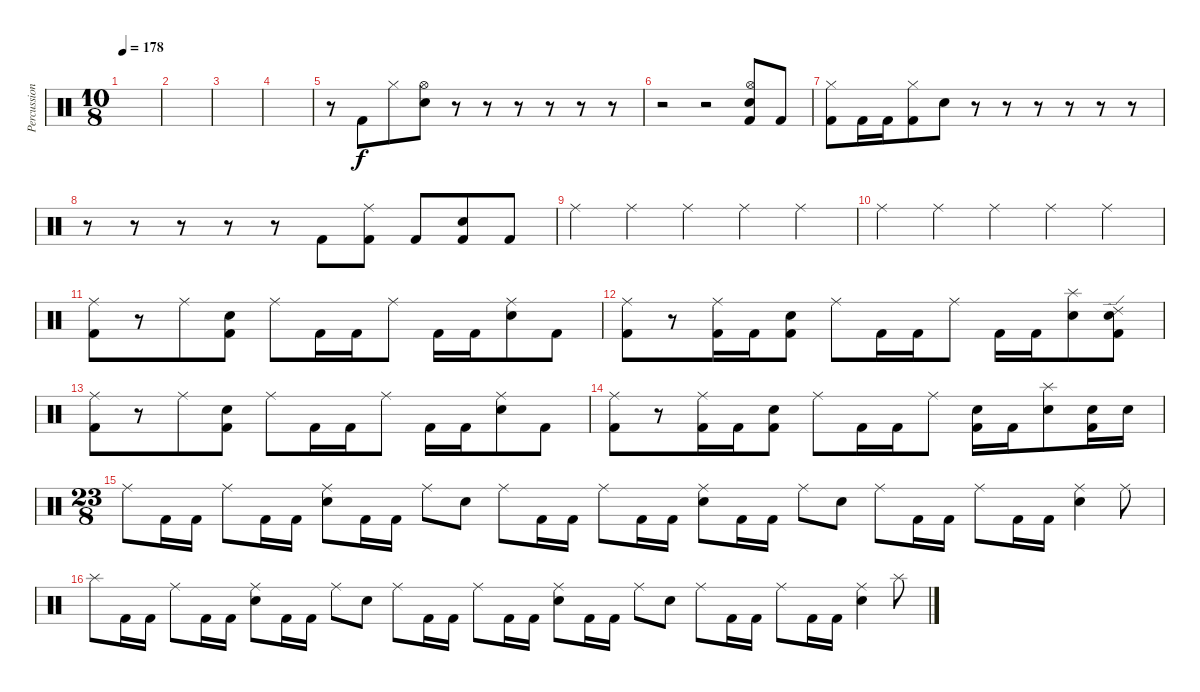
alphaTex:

\track ("Percussion" "Percussion") {instrument percussion}
\staff {score}
\articulation defaults
\ts (10 8)
\tempo 178
\clef neutral
\ks c
|
|
|
|
r.8 "Kick (hit) 2".8 "Hi-Hat (closed)".8 ("Hi-Hat (open)" "Electric Snare (hit)").8 r.8 r.8 r.8 r.8 r.8 r.8 |
r.2 r.2 ("Hi-Hat (open)" "Electric Snare (hit)" "Kick (hit) 2").8 "Kick (hit) 2".8 |
("Hi-Hat (closed)" "Kick (hit) 2").8 "Kick (hit) 2".16 "Kick (hit) 2".16 ("Hi-Hat (closed)" "Kick (hit) 2").8 "Electric Snare (hit)".8 r.8 r.8 r.8 r.8 r.8 r.8 |
r.8 r.8 r.8 r.8 r.8 "Kick (hit) 2".8 ("Ride (middle)" "Kick (hit) 2").8 "Kick (hit) 2".8 ("Electric Snare (hit)" "Kick (hit) 2").8 "Kick (hit) 2".8 |
"Ride (middle)".4 "Ride (middle)".4 "Ride (middle)".4 "Ride (middle)".4 "Ride (middle)".4 |
"Ride (middle)".4 "Ride (middle)".4 "Ride (middle)".4 "Ride (middle)".4 "Ride (middle)".4 |
("Ride (middle)" "Kick (hit) 2").8 r.8 "Ride (middle)".8 ("Electric Snare (hit)" "Kick (hit) 2").8 "Ride (middle)".8 "Kick (hit) 2".16 "Kick (hit) 2".16 "Ride (middle)".8 "Kick (hit) 2".16 "Kick (hit) 2".16 ("Ride (middle)" "Electric Snare (hit)").8 "Kick (hit) 2".8 |
("Ride (middle)" "Kick (hit) 2").8 r.8 ("Ride (middle)" "Kick (hit) 2").16 "Kick (hit) 2".16 ("Electric Snare (hit)" "Kick (hit) 2").8 "Ride (middle)".8 "Kick (hit) 2".16 "Kick (hit) 2".16 "Ride (middle)".8 "Kick (hit) 2".16 "Kick (hit) 2".16 ("Splash (hit)" "Electric Snare (hit)").8 ("Ride (edge) 2" "Electric Snare (hit)" "Kick (hit) 2").8 |
("Ride (middle)" "Kick (hit) 2").8 r.8 "Ride (middle)".8 ("Electric Snare (hit)" "Kick (hit) 2").8 "Ride (middle)".8 "Kick (hit) 2".16 "Kick (hit) 2".16 "Ride (middle)".8 "Kick (hit) 2".16 "Kick (hit) 2".16 ("Ride (middle)" "Electric Snare (hit)").8 "Kick (hit) 2".8 |
("Ride (middle)" "Kick (hit) 2").8 r.8 ("Ride (middle)" "Kick (hit) 2").16 "Kick (hit) 2".16 ("Electric Snare (hit)" "Kick (hit) 2").8 "Ride (middle)".8 "Kick (hit) 2".16 "Kick (hit) 2".16 "Ride (middle)".8 ("Electric Snare (hit)" "Kick (hit) 2").16 "Kick (hit) 2".16 ("Splash (hit)" "Electric Snare (hit)").8 ("Electric Snare (hit)" "Kick (hit) 2").16 "Electric Snare (hit)".16 |
\ts (23 8)
"Ride (middle)".8 "Kick (hit) 2".16 "Kick (hit) 2".16 "Ride (middle)".8 "Kick (hit) 2".16 "Kick (hit) 2".16 ("Ride (middle)" "Electric Snare (hit)").8 "Kick (hit) 2".16 "Kick (hit) 2".16 "Ride (middle)".8 "Electric Snare (hit)".8 "Ride (middle)".8 "Kick (hit) 2".16 "Kick (hit) 2".16 "Ride (middle)".8 "Kick (hit) 2".16 "Kick (hit) 2".16 ("Ride (middle)" "Electric Snare (hit)").8 "Kick (hit) 2".16 "Kick (hit) 2".16 "Ride (middle)".8 "Electric Snare (hit)".8 "Ride (middle)".8 "Kick (hit) 2".16 "Kick (hit) 2".16 "Ride (middle)".8 "Kick (hit) 2".16 "Kick (hit) 2".16 ("Ride (middle)" "Electric Snare (hit)").4 "Ride (middle)".8 |
"Splash (hit)".8 "Kick (hit) 2".16 "Kick (hit) 2".16 "Ride (middle)".8 "Kick (hit) 2".16 "Kick (hit) 2".16 ("Ride (middle)" "Electric Snare (hit)").8 "Kick (hit) 2".16 "Kick (hit) 2".16 "Ride (middle)".8 "Electric Snare (hit)".8 "Ride (middle)".8 "Kick (hit) 2".16 "Kick (hit) 2".16 "Ride (middle)".8 "Kick (hit) 2".16 "Kick (hit) 2".16 ("Ride (middle)" "Electric Snare (hit)").8 "Kick (hit) 2".16 "Kick (hit) 2".16 "Ride (middle)".8 "Electric Snare (hit)".8 "Ride (middle)".8 "Kick (hit) 2".16 "Kick (hit) 2".16 "Ride (middle)".8 "Kick (hit) 2".16 "Kick (hit) 2".16 ("Ride (middle)" "Electric Snare (hit)").4 "Splash (hit)".8
